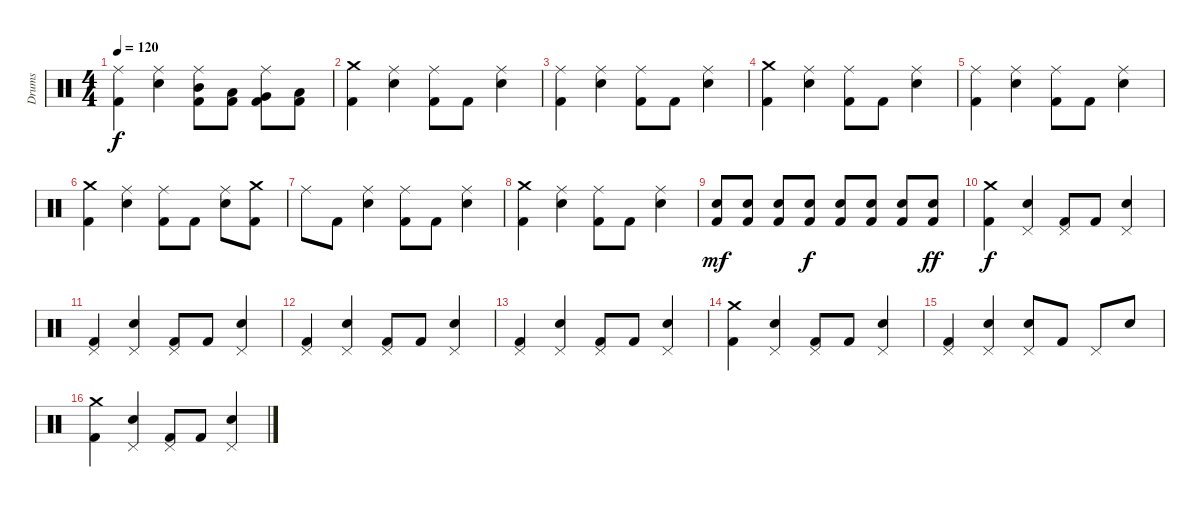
\track ("Drums" "Drums") {instrument percussion}
\staff {score}
\articulation defaults
\ts (4 4)
\tempo 120
\clef neutral
\ks c
("Ride (middle)" "Kick (hit) 2").4{dy f} ("Ride (middle)" "Snare (hit) 2").4 ("Ride (middle)" "Mid Tom (hit)" "Kick (hit) 2").8 ("Kick (hit) 2" "Low Tom (hit)").8 ("Ride (middle)" "Kick (hit) 2" "Very Low Tom (hit)").8 ("Kick (hit) 2" "Low Floor Tom (hit)").8 |
("Kick (hit) 2" "Crash medium (hit)").4 ("Ride (middle)" "Snare (hit) 2").4 ("Ride (middle)" "Kick (hit) 2").8 "Kick (hit) 2".8 ("Ride (middle)" "Snare (hit) 2").4 |
("Ride (middle)" "Kick (hit) 2").4 ("Ride (middle)" "Snare (hit) 2").4 ("Ride (middle)" "Kick (hit) 2").8 "Kick (hit) 2".8 ("Ride (middle)" "Snare (hit) 2").4 |
("Kick (hit) 2" "Crash medium (hit)").4 ("Ride (middle)" "Snare (hit) 2").4 ("Ride (middle)" "Kick (hit) 2").8 "Kick (hit) 2".8 ("Ride (middle)" "Snare (hit) 2").4 |
("Ride (middle)" "Kick (hit) 2").4 ("Ride (middle)" "Snare (hit) 2").4 ("Ride (middle)" "Kick (hit) 2").8 "Kick (hit) 2".8 ("Ride (middle)" "Snare (hit) 2").4 |
("Crash medium (hit)" "Kick (hit) 2").4 ("Ride (middle)" "Snare (hit) 2").4 ("Ride (middle)" "Kick (hit) 2").8 "Kick (hit) 2".8 ("Ride (middle)" "Snare (hit) 2").8 ("Kick (hit) 2" "Crash medium (hit)").8 |
"Ride (middle)".8 "Kick (hit) 2".8 ("Ride (middle)" "Snare (hit) 2").4 ("Ride (middle)" "Kick (hit) 2").8 "Kick (hit) 2".8 ("Ride (middle)" "Snare (hit) 2").4 |
("Kick (hit) 2" "Crash medium (hit)").4 ("Ride (middle)" "Snare (hit) 2").4 ("Ride (middle)" "Kick (hit) 2").8 "Kick (hit) 2".8 ("Ride (middle)" "Snare (hit) 2").4 |
("Kick (hit) 2" "Snare (hit) 2").8{dy mf} ("Kick (hit) 2" "Snare (hit) 2").8 ("Kick (hit) 2" "Snare (hit) 2").8 ("Kick (hit) 2" "Snare (hit) 2").8{dy f} ("Kick (hit) 2" "Snare (hit) 2").8 ("Kick (hit) 2" "Snare (hit) 2").8 ("Kick (hit) 2" "Snare (hit) 2").8 ("Kick (hit) 2" "Snare (hit) 2").8{dy ff} |
("Crash medium (hit)" "Kick (hit) 2").4{dy f} ("Pedal Hi-Hat (hit)" "Snare (hit) 2").4 ("Pedal Hi-Hat (hit)" "Kick (hit) 2").8 "Kick (hit) 2".8 ("Pedal Hi-Hat (hit)" "Snare (hit) 2").4 |
("Pedal Hi-Hat (hit)" "Kick (hit) 2").4 ("Pedal Hi-Hat (hit)" "Snare (hit) 2").4 ("Pedal Hi-Hat (hit)" "Kick (hit) 2").8 "Kick (hit) 2".8 ("Pedal Hi-Hat (hit)" "Snare (hit) 2").4 |
("Pedal Hi-Hat (hit)" "Kick (hit) 2").4 ("Pedal Hi-Hat (hit)" "Snare (hit) 2").4 ("Pedal Hi-Hat (hit)" "Kick (hit) 2").8 "Kick (hit) 2".8 ("Pedal Hi-Hat (hit)" "Snare (hit) 2").4 |
("Pedal Hi-Hat (hit)" "Kick (hit) 2").4 ("Pedal Hi-Hat (hit)" "Snare (hit) 2").4 ("Pedal Hi-Hat (hit)" "Kick (hit) 2").8 "Kick (hit) 2".8 ("Pedal Hi-Hat (hit)" "Snare (hit) 2").4 |
("Kick (hit) 2" "Crash medium (hit)").4 ("Pedal Hi-Hat (hit)" "Snare (hit) 2").4 ("Pedal Hi-Hat (hit)" "Kick (hit) 2").8 "Kick (hit) 2".8 ("Pedal Hi-Hat (hit)" "Snare (hit) 2").4 |
("Pedal Hi-Hat (hit)" "Kick (hit) 2").4 ("Pedal Hi-Hat (hit)" "Snare (hit) 2").4 ("Pedal Hi-Hat (hit)" "Snare (hit) 2").8 "Kick (hit) 2".8 "Pedal Hi-Hat (hit)".8 "Snare (hit) 2".8 |
("Kick (hit) 2" "Crash medium (hit)").4 ("Pedal Hi-Hat (hit)" "Snare (hit) 2").4 ("Pedal Hi-Hat (hit)" "Kick (hit) 2").8 "Kick (hit) 2".8 ("Pedal Hi-Hat (hit)" "Snare (hit) 2").4
